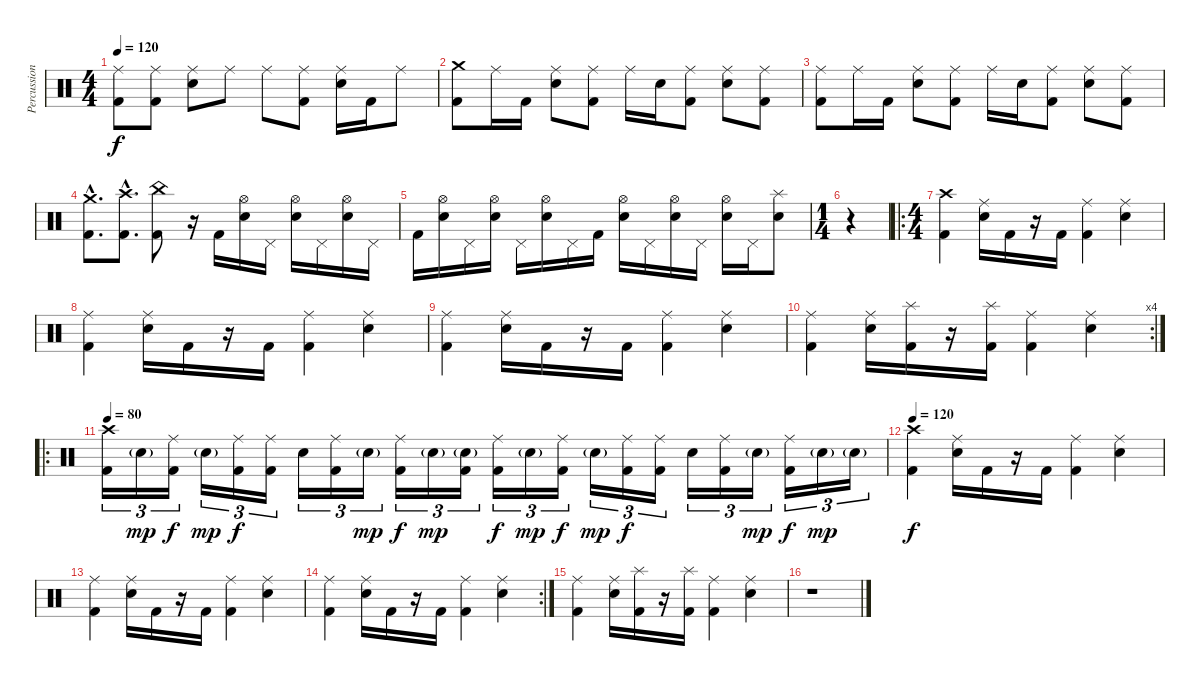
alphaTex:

\track ("Percussions" "Percussion") {instrument percussion}
\staff {score}
\articulation defaults
\ts (4 4)
\tempo 120
\clef neutral
\ks c
("Ride (middle)" "Kick (hit) 2").8{dy f} ("Ride (middle)" "Kick (hit) 2").8 ("Ride (middle)" "Electric Snare (hit)").8 "Ride (middle)".8 "Ride (middle)".8 ("Ride (middle)" "Kick (hit) 2").8 ("Ride (middle)" "Electric Snare (hit)").16 "Kick (hit) 2".16 "Ride (middle)".8 |
("Crash medium (hit)" "Kick (hit) 2").8 "Ride (middle)".16 "Kick (hit) 2".16 ("Ride (middle)" "Electric Snare (hit)").8 ("Ride (middle)" "Kick (hit) 2").8 "Ride (middle)".16 "Electric Snare (hit)".16 ("Ride (middle)" "Kick (hit) 2").8 ("Ride (middle)" "Electric Snare (hit)").8 ("Ride (middle)" "Kick (hit) 2").8 |
("Ride (middle)" "Kick (hit) 2").8 "Ride (middle)".16 "Kick (hit) 2".16 ("Ride (middle)" "Electric Snare (hit)").8 ("Ride (middle)" "Kick (hit) 2").8 "Ride (middle)".16 "Electric Snare (hit)".16 ("Ride (middle)" "Kick (hit) 2").8 ("Ride (middle)" "Electric Snare (hit)").8 ("Ride (middle)" "Kick (hit) 2").8 |
("Crash medium (hit)"{hac} "Kick (hit) 2"{hac}).8{d} ("Crash high (hit)"{hac} "Kick (hit) 2"{hac}).8{d} ("China (hit)" "Kick (hit) 2").8 r.16 "Kick (hit) 2".16 ("Hi-Hat (open)" "Electric Snare (hit)").16 "Pedal Hi-Hat (hit)".16 ("Hi-Hat (open)" "Electric Snare (hit)").16 "Pedal Hi-Hat (hit)".16 ("Hi-Hat (open)" "Electric Snare (hit)").16 "Pedal Hi-Hat (hit)".16 |
"Kick (hit) 2".16 ("Hi-Hat (open)" "Electric Snare (hit)").16 "Pedal Hi-Hat (hit)".16 ("Hi-Hat (open)" "Electric Snare (hit)").16 "Pedal Hi-Hat (hit)".16 ("Hi-Hat (open)" "Electric Snare (hit)").16 "Pedal Hi-Hat (hit)".16 "Kick (hit) 2".16 ("Hi-Hat (open)" "Electric Snare (hit)").16 "Pedal Hi-Hat (hit)".16 ("Hi-Hat (open)" "Electric Snare (hit)").16 "Pedal Hi-Hat (hit)".16 ("Hi-Hat (open)" "Electric Snare (hit)").16 "Pedal Hi-Hat (hit)".16 ("Splash (hit)" "Electric Snare (hit)").8 |
\ts (1 4)
r.4 |
\ro
\ts (4 4)
("Crash high (hit)" "Kick (hit) 2").4 ("Ride (middle)" "Electric Snare (hit)").16 "Kick (hit) 2".16 r.16 "Kick (hit) 2".16 ("Ride (middle)" "Kick (hit) 2").4 ("Ride (middle)" "Electric Snare (hit)").4 |
("Ride (middle)" "Kick (hit) 2").4 ("Ride (middle)" "Electric Snare (hit)").16 "Kick (hit) 2".16 r.16 "Kick (hit) 2".16 ("Ride (middle)" "Kick (hit) 2").4 ("Ride (middle)" "Electric Snare (hit)").4 |
("Ride (middle)" "Kick (hit) 2").4 ("Ride (middle)" "Electric Snare (hit)").16 "Kick (hit) 2".16 r.16 "Kick (hit) 2".16 ("Ride (middle)" "Kick (hit) 2").4 ("Ride (middle)" "Electric Snare (hit)").4 |
\rc 4
("Ride (middle)" "Kick (hit) 2").4 ("Ride (middle)" "Electric Snare (hit)").16 ("Splash (hit)" "Kick (hit) 2").16 r.16 ("Splash (hit)" "Kick (hit) 2").16 ("Ride (middle)" "Kick (hit) 2").4 ("Ride (middle)" "Electric Snare (hit)").4 |
\ro
\tempo 80
("Crash high (hit)" "Kick (hit) 2").16{tu (3 2)} "Electric Snare (hit)"{g}.16{tu (3 2) dy mp} ("Ride (middle)" "Kick (hit) 2").16{tu (3 2) dy f} "Electric Snare (hit)"{g}.16{tu (3 2) dy mp} ("Ride (middle)" "Kick (hit) 2").16{tu (3 2) dy f} ("Ride (middle)" "Kick (hit) 2").16{tu (3 2)} "Electric Snare (hit)".16{tu (3 2)} ("Ride (middle)" "Kick (hit) 2").16{tu (3 2)} "Electric Snare (hit)"{g}.16{tu (3 2) dy mp} ("Ride (middle)" "Kick (hit) 2").16{tu (3 2) dy f} "Electric Snare (hit)"{g}.16{tu (3 2) dy mp} ("Electric Snare (hit)"{g} "Kick (hit) 2").16{tu (3 2)} ("Ride (middle)" "Kick (hit) 2").16{tu (3 2) dy f} "Electric Snare (hit)"{g}.16{tu (3 2) dy mp} ("Ride (middle)" "Kick (hit) 2").16{tu (3 2) dy f} "Electric Snare (hit)"{g}.16{tu (3 2) dy mp} ("Ride (middle)" "Kick (hit) 2").16{tu (3 2) dy f} ("Ride (middle)" "Kick (hit) 2").16{tu (3 2)} "Electric Snare (hit)".16{tu (3 2)} ("Ride (middle)" "Kick (hit) 2").16{tu (3 2)} "Electric Snare (hit)"{g}.16{tu (3 2) dy mp} ("Ride (middle)" "Kick (hit) 2").16{tu (3 2) dy f} "Electric Snare (hit)"{g}.16{tu (3 2) dy mp} "Electric Snare (hit)"{g}.16{tu (3 2)} |
\tempo 120
("Crash high (hit)" "Kick (hit) 2").4{dy f} ("Ride (middle)" "Electric Snare (hit)").16 "Kick (hit) 2".16 r.16 "Kick (hit) 2".16 ("Ride (middle)" "Kick (hit) 2").4 ("Ride (middle)" "Electric Snare (hit)").4 |
("Ride (middle)" "Kick (hit) 2").4 ("Ride (middle)" "Electric Snare (hit)").16 "Kick (hit) 2".16 r.16 "Kick (hit) 2".16 ("Ride (middle)" "Kick (hit) 2").4 ("Ride (middle)" "Electric Snare (hit)").4 |
\rc 2
("Ride (middle)" "Kick (hit) 2").4 ("Ride (middle)" "Electric Snare (hit)").16 "Kick (hit) 2".16 r.16 "Kick (hit) 2".16 ("Ride (middle)" "Kick (hit) 2").4 ("Ride (middle)" "Electric Snare (hit)").4 |
("Ride (middle)" "Kick (hit) 2").4 ("Ride (middle)" "Electric Snare (hit)").16 ("Splash (hit)" "Kick (hit) 2").16 r.16 ("Splash (hit)" "Kick (hit) 2").16 ("Ride (middle)" "Kick (hit) 2").4 ("Ride (middle)" "Electric Snare (hit)").4 |
r.1
